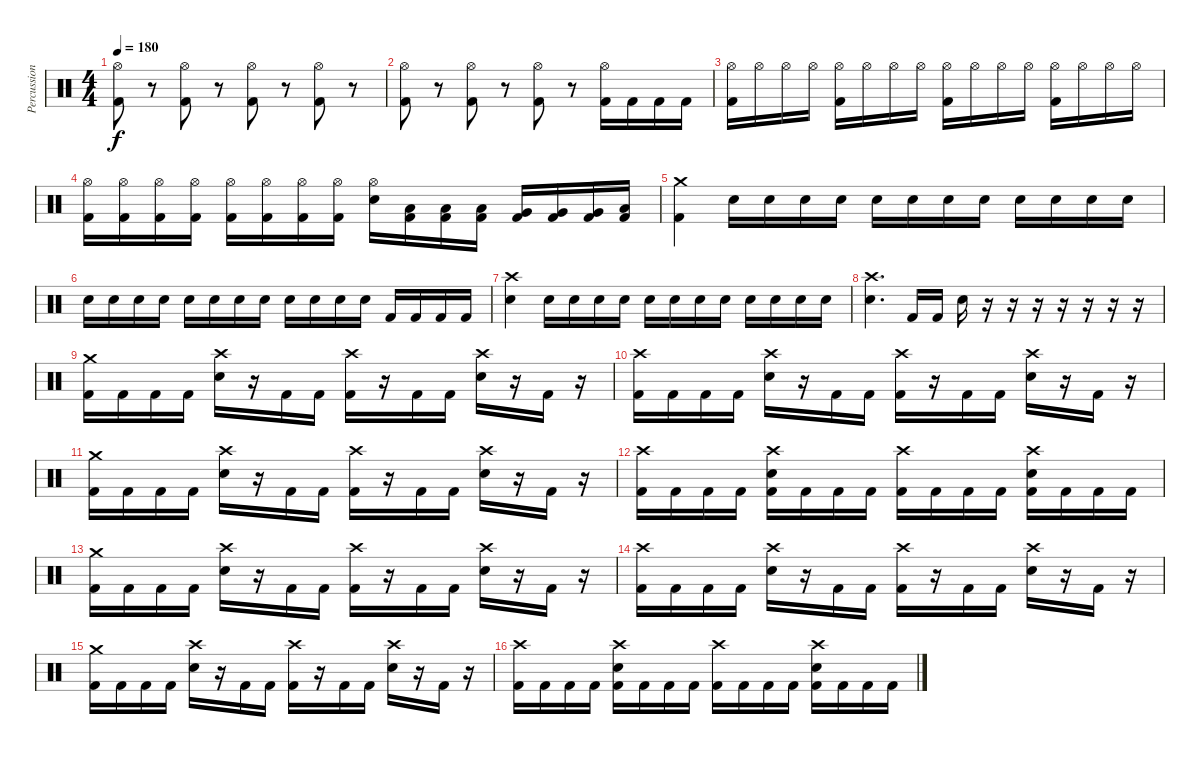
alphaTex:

\track ("Percussions" "Percussion") {instrument percussion}
\staff {score}
\articulation defaults
\ts (4 4)
\tempo 180
\clef neutral
\ks c
("Hi-Hat (open)" "Kick (hit) 2").8{dy f} r.8 ("Hi-Hat (open)" "Kick (hit) 2").8 r.8 ("Hi-Hat (open)" "Kick (hit) 2").8 r.8 ("Hi-Hat (open)" "Kick (hit) 2").8 r.8 |
("Hi-Hat (open)" "Kick (hit) 2").8 r.8 ("Hi-Hat (open)" "Kick (hit) 2").8 r.8 ("Hi-Hat (open)" "Kick (hit) 2").8 r.8 ("Hi-Hat (open)" "Kick (hit) 2").16 "Kick (hit) 2".16 "Kick (hit) 2".16 "Kick (hit) 2".16 |
("Hi-Hat (open)" "Kick (hit) 2").16 "Hi-Hat (open)".16 "Hi-Hat (open)".16 "Hi-Hat (open)".16 ("Hi-Hat (open)" "Kick (hit) 2").16 "Hi-Hat (open)".16 "Hi-Hat (open)".16 "Hi-Hat (open)".16 ("Hi-Hat (open)" "Kick (hit) 2").16 "Hi-Hat (open)".16 "Hi-Hat (open)".16 "Hi-Hat (open)".16 ("Hi-Hat (open)" "Kick (hit) 2").16 "Hi-Hat (open)".16 "Hi-Hat (open)".16 "Hi-Hat (open)".16 |
("Hi-Hat (open)" "Kick (hit) 2").16 ("Hi-Hat (open)" "Kick (hit) 2").16 ("Hi-Hat (open)" "Kick (hit) 2").16 ("Hi-Hat (open)" "Kick (hit) 2").16 ("Hi-Hat (open)" "Kick (hit) 2").16 ("Hi-Hat (open)" "Kick (hit) 2").16 ("Hi-Hat (open)" "Kick (hit) 2").16 ("Hi-Hat (open)" "Kick (hit) 2").16 ("Hi-Hat (open)" "Snare (hit) 2").16 ("Low Tom (hit)" "Kick (hit) 2").16 ("Low Tom (hit)" "Kick (hit) 2").16 ("Low Tom (hit)" "Kick (hit) 2").16 ("Very Low Tom (hit)" "Kick (hit) 2").16 ("Very Low Tom (hit)" "Kick (hit) 2").16 ("Very Low Tom (hit)" "Kick (hit) 2").16 ("Low Floor Tom (hit)" "Kick (hit) 2").16 |
("Crash medium (hit)" "Kick (hit) 2").4 "Snare (hit) 2".16 "Snare (hit) 2".16 "Snare (hit) 2".16 "Snare (hit) 2".16 "Snare (hit) 2".16 "Snare (hit) 2".16 "Snare (hit) 2".16 "Snare (hit) 2".16 "Snare (hit) 2".16 "Snare (hit) 2".16 "Snare (hit) 2".16 "Snare (hit) 2".16 |
"Snare (hit) 2".16 "Snare (hit) 2".16 "Snare (hit) 2".16 "Snare (hit) 2".16 "Snare (hit) 2".16 "Snare (hit) 2".16 "Snare (hit) 2".16 "Snare (hit) 2".16 "Snare (hit) 2".16 "Snare (hit) 2".16 "Snare (hit) 2".16 "Snare (hit) 2".16 "Kick (hit) 2".16 "Kick (hit) 2".16 "Kick (hit) 2".16 "Kick (hit) 2".16 |
("Crash high (hit)" "Snare (hit) 2").4 "Snare (hit) 2".16 "Snare (hit) 2".16 "Snare (hit) 2".16 "Snare (hit) 2".16 "Snare (hit) 2".16 "Snare (hit) 2".16 "Snare (hit) 2".16 "Snare (hit) 2".16 "Snare (hit) 2".16 "Snare (hit) 2".16 "Snare (hit) 2".16 "Snare (hit) 2".16 |
("Crash high (hit)" "Snare (hit) 2").4{d} "Kick (hit) 2".16 "Kick (hit) 2".16 "Snare (hit) 2".16 r.16 r.16 r.16 r.16 r.16 r.16 r.16 |
("Crash medium (hit)" "Kick (hit) 2").16 "Kick (hit) 2".16 "Kick (hit) 2".16 "Kick (hit) 2".16 ("Crash high (hit)" "Snare (hit) 2").16 r.16 "Kick (hit) 2".16 "Kick (hit) 2".16 ("Crash high (hit)" "Kick (hit) 2").16 r.16 "Kick (hit) 2".16 "Kick (hit) 2".16 ("Crash high (hit)" "Snare (hit) 2").16 r.16 "Kick (hit) 2".16 r.16 |
("Crash high (hit)" "Kick (hit) 2").16 "Kick (hit) 2".16 "Kick (hit) 2".16 "Kick (hit) 2".16 ("Crash high (hit)" "Snare (hit) 2").16 r.16 "Kick (hit) 2".16 "Kick (hit) 2".16 ("Crash high (hit)" "Kick (hit) 2").16 r.16 "Kick (hit) 2".16 "Kick (hit) 2".16 ("Crash high (hit)" "Snare (hit) 2").16 r.16 "Kick (hit) 2".16 r.16 |
("Crash medium (hit)" "Kick (hit) 2").16 "Kick (hit) 2".16 "Kick (hit) 2".16 "Kick (hit) 2".16 ("Crash high (hit)" "Snare (hit) 2").16 r.16 "Kick (hit) 2".16 "Kick (hit) 2".16 ("Crash high (hit)" "Kick (hit) 2").16 r.16 "Kick (hit) 2".16 "Kick (hit) 2".16 ("Crash high (hit)" "Snare (hit) 2").16 r.16 "Kick (hit) 2".16 r.16 |
("Crash high (hit)" "Kick (hit) 2").16 "Kick (hit) 2".16 "Kick (hit) 2".16 "Kick (hit) 2".16 ("Crash high (hit)" "Snare (hit) 2" "Kick (hit) 2").16 "Kick (hit) 2".16 "Kick (hit) 2".16 "Kick (hit) 2".16 ("Crash high (hit)" "Kick (hit) 2").16 "Kick (hit) 2".16 "Kick (hit) 2".16 "Kick (hit) 2".16 ("Crash high (hit)" "Snare (hit) 2" "Kick (hit) 2").16 "Kick (hit) 2".16 "Kick (hit) 2".16 "Kick (hit) 2".16 |
("Crash medium (hit)" "Kick (hit) 2").16 "Kick (hit) 2".16 "Kick (hit) 2".16 "Kick (hit) 2".16 ("Crash high (hit)" "Snare (hit) 2").16 r.16 "Kick (hit) 2".16 "Kick (hit) 2".16 ("Crash high (hit)" "Kick (hit) 2").16 r.16 "Kick (hit) 2".16 "Kick (hit) 2".16 ("Crash high (hit)" "Snare (hit) 2").16 r.16 "Kick (hit) 2".16 r.16 |
("Crash high (hit)" "Kick (hit) 2").16 "Kick (hit) 2".16 "Kick (hit) 2".16 "Kick (hit) 2".16 ("Crash high (hit)" "Snare (hit) 2").16 r.16 "Kick (hit) 2".16 "Kick (hit) 2".16 ("Crash high (hit)" "Kick (hit) 2").16 r.16 "Kick (hit) 2".16 "Kick (hit) 2".16 ("Crash high (hit)" "Snare (hit) 2").16 r.16 "Kick (hit) 2".16 r.16 |
("Crash medium (hit)" "Kick (hit) 2").16 "Kick (hit) 2".16 "Kick (hit) 2".16 "Kick (hit) 2".16 ("Crash high (hit)" "Snare (hit) 2").16 r.16 "Kick (hit) 2".16 "Kick (hit) 2".16 ("Crash high (hit)" "Kick (hit) 2").16 r.16 "Kick (hit) 2".16 "Kick (hit) 2".16 ("Crash high (hit)" "Snare (hit) 2").16 r.16 "Kick (hit) 2".16 r.16 |
("Crash high (hit)" "Kick (hit) 2").16 "Kick (hit) 2".16 "Kick (hit) 2".16 "Kick (hit) 2".16 ("Crash high (hit)" "Snare (hit) 2" "Kick (hit) 2").16 "Kick (hit) 2".16 "Kick (hit) 2".16 "Kick (hit) 2".16 ("Crash high (hit)" "Kick (hit) 2").16 "Kick (hit) 2".16 "Kick (hit) 2".16 "Kick (hit) 2".16 ("Crash high (hit)" "Snare (hit) 2" "Kick (hit) 2").16 "Kick (hit) 2".16 "Kick (hit) 2".16 "Kick (hit) 2".16
